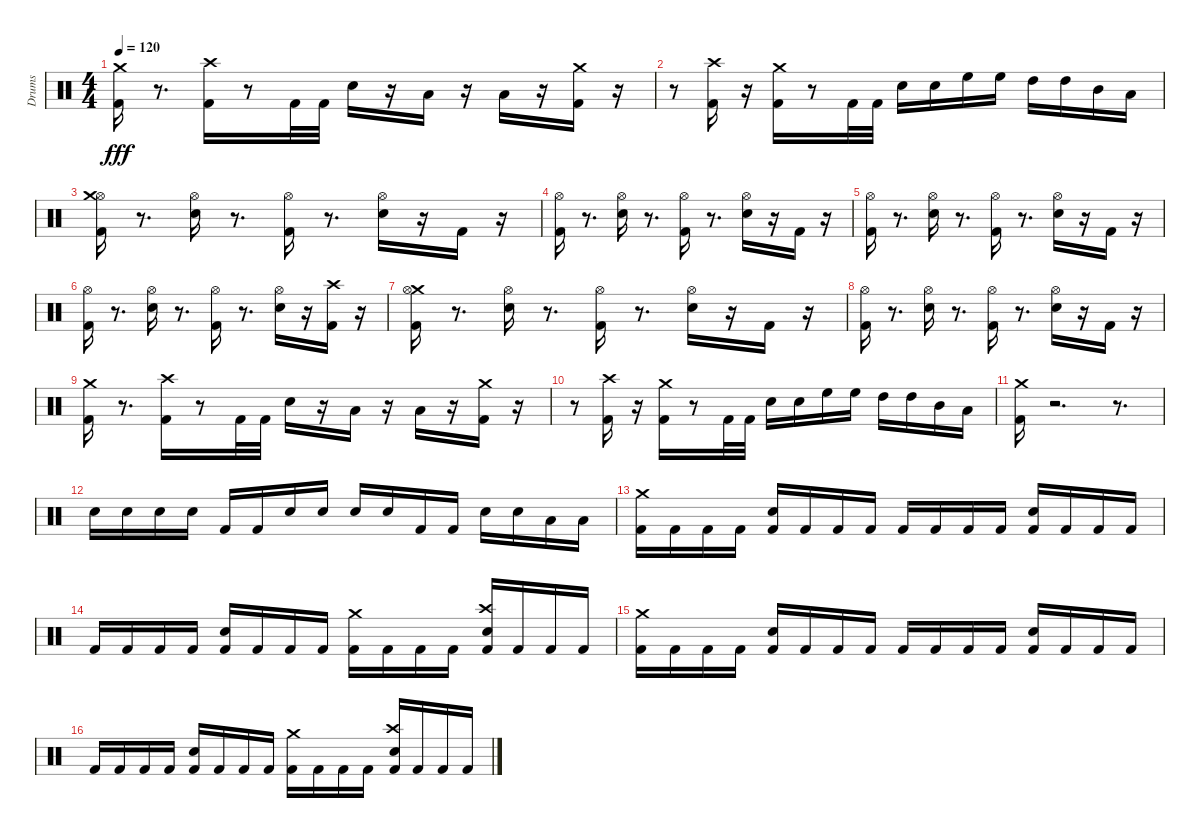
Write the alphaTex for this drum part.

\track ("Drums" "Drums") {instrument percussion}
\staff {score}
\articulation defaults
\ts (4 4)
\tempo 120
\clef neutral
\ks c
("Kick (hit) 2" "Crash medium (hit)").16{dy fff} r.8{d} ("Kick (hit) 2" "Crash high (hit)").16 r.8 "Kick (hit) 2".32 "Kick (hit) 2".32 "Electric Snare (hit)".16 r.16 "Low Tom (hit)".16 r.16 "Low Floor Tom (hit)".16 r.16 ("Kick (hit) 2" "Crash medium (hit)").16 r.16 |
r.8 ("Kick (hit) 2" "Crash high (hit)").16 r.16 ("Kick (hit) 2" "Crash medium (hit)").16 r.8 "Kick (hit) 2".32 "Kick (hit) 2".32 "Electric Snare (hit)".16 "Electric Snare (hit)".16 "High Floor Tom (hit)".16 "High Floor Tom (hit)".16 "High Tom (hit)".16 "High Tom (hit)".16 "Mid Tom (hit)".16 "Low Tom (hit)".16 |
("Kick (hit) 2" "Hi-Hat (open)" "Crash medium (hit)").16 r.8{d} ("Electric Snare (hit)" "Hi-Hat (open)").16 r.8{d} ("Kick (hit) 2" "Hi-Hat (open)").16 r.8{d} ("Electric Snare (hit)" "Hi-Hat (open)").16 r.16 "Kick (hit) 2".16 r.16 |
("Kick (hit) 2" "Hi-Hat (open)").16 r.8{d} ("Electric Snare (hit)" "Hi-Hat (open)").16 r.8{d} ("Kick (hit) 2" "Hi-Hat (open)").16 r.8{d} ("Electric Snare (hit)" "Hi-Hat (open)").16 r.16 "Kick (hit) 2".16 r.16 |
("Kick (hit) 2" "Hi-Hat (open)").16 r.8{d} ("Electric Snare (hit)" "Hi-Hat (open)").16 r.8{d} ("Kick (hit) 2" "Hi-Hat (open)").16 r.8{d} ("Electric Snare (hit)" "Hi-Hat (open)").16 r.16 "Kick (hit) 2".16 r.16 |
("Kick (hit) 2" "Hi-Hat (open)").16 r.8{d} ("Electric Snare (hit)" "Hi-Hat (open)").16 r.8{d} ("Kick (hit) 2" "Hi-Hat (open)").16 r.8{d} ("Electric Snare (hit)" "Hi-Hat (open)").16 r.16 ("Kick (hit) 2" "Crash high (hit)").16 r.16 |
("Kick (hit) 2" "Crash medium (hit)" "Hi-Hat (open)").16 r.8{d} ("Electric Snare (hit)" "Hi-Hat (open)").16 r.8{d} ("Kick (hit) 2" "Hi-Hat (open)").16 r.8{d} ("Electric Snare (hit)" "Hi-Hat (open)").16 r.16 "Kick (hit) 2".16 r.16 |
("Kick (hit) 2" "Hi-Hat (open)").16 r.8{d} ("Electric Snare (hit)" "Hi-Hat (open)").16 r.8{d} ("Kick (hit) 2" "Hi-Hat (open)").16 r.8{d} ("Electric Snare (hit)" "Hi-Hat (open)").16 r.16 "Kick (hit) 2".16 r.16 |
("Kick (hit) 2" "Crash medium (hit)").16 r.8{d} ("Kick (hit) 2" "Crash high (hit)").16 r.8 "Kick (hit) 2".32 "Kick (hit) 2".32 "Electric Snare (hit)".16 r.16 "Low Tom (hit)".16 r.16 "Low Floor Tom (hit)".16 r.16 ("Kick (hit) 2" "Crash medium (hit)").16 r.16 |
r.8 ("Kick (hit) 2" "Crash high (hit)").16 r.16 ("Kick (hit) 2" "Crash medium (hit)").16 r.8 "Kick (hit) 2".32 "Kick (hit) 2".32 "Electric Snare (hit)".16 "Electric Snare (hit)".16 "High Floor Tom (hit)".16 "High Floor Tom (hit)".16 "High Tom (hit)".16 "High Tom (hit)".16 "Mid Tom (hit)".16 "Low Tom (hit)".16 |
("Kick (hit) 2" "Crash medium (hit)").16 r.2{d} r.8{d} |
"Electric Snare (hit)".16 "Electric Snare (hit)".16 "Electric Snare (hit)".16 "Electric Snare (hit)".16 "Kick (hit) 2".16 "Kick (hit) 2".16 "Electric Snare (hit)".16 "Electric Snare (hit)".16 "Electric Snare (hit)".16 "Electric Snare (hit)".16 "Kick (hit) 2".16 "Kick (hit) 2".16 "Electric Snare (hit)".16 "Electric Snare (hit)".16 "Low Tom (hit)".16 "Low Floor Tom (hit)".16 |
("Kick (hit) 2" "Crash medium (hit)").16 "Kick (hit) 2".16 "Kick (hit) 2".16 "Kick (hit) 2".16 ("Kick (hit) 2" "Electric Snare (hit)").16 "Kick (hit) 2".16 "Kick (hit) 2".16 "Kick (hit) 2".16 "Kick (hit) 2".16 "Kick (hit) 2".16 "Kick (hit) 2".16 "Kick (hit) 2".16 ("Kick (hit) 2" "Electric Snare (hit)").16 "Kick (hit) 2".16 "Kick (hit) 2".16 "Kick (hit) 2".16 |
"Kick (hit) 2".16 "Kick (hit) 2".16 "Kick (hit) 2".16 "Kick (hit) 2".16 ("Kick (hit) 2" "Electric Snare (hit)").16 "Kick (hit) 2".16 "Kick (hit) 2".16 "Kick (hit) 2".16 ("Kick (hit) 2" "Crash medium (hit)").16 "Kick (hit) 2".16 "Kick (hit) 2".16 "Kick (hit) 2".16 ("Kick (hit) 2" "Electric Snare (hit)" "Crash high (hit)").16 "Kick (hit) 2".16 "Kick (hit) 2".16 "Kick (hit) 2".16 |
("Kick (hit) 2" "Crash medium (hit)").16 "Kick (hit) 2".16 "Kick (hit) 2".16 "Kick (hit) 2".16 ("Kick (hit) 2" "Electric Snare (hit)").16 "Kick (hit) 2".16 "Kick (hit) 2".16 "Kick (hit) 2".16 "Kick (hit) 2".16 "Kick (hit) 2".16 "Kick (hit) 2".16 "Kick (hit) 2".16 ("Kick (hit) 2" "Electric Snare (hit)").16 "Kick (hit) 2".16 "Kick (hit) 2".16 "Kick (hit) 2".16 |
"Kick (hit) 2".16 "Kick (hit) 2".16 "Kick (hit) 2".16 "Kick (hit) 2".16 ("Kick (hit) 2" "Electric Snare (hit)").16 "Kick (hit) 2".16 "Kick (hit) 2".16 "Kick (hit) 2".16 ("Kick (hit) 2" "Crash medium (hit)").16 "Kick (hit) 2".16 "Kick (hit) 2".16 "Kick (hit) 2".16 ("Kick (hit) 2" "Electric Snare (hit)" "Crash high (hit)").16 "Kick (hit) 2".16 "Kick (hit) 2".16 "Kick (hit) 2".16
